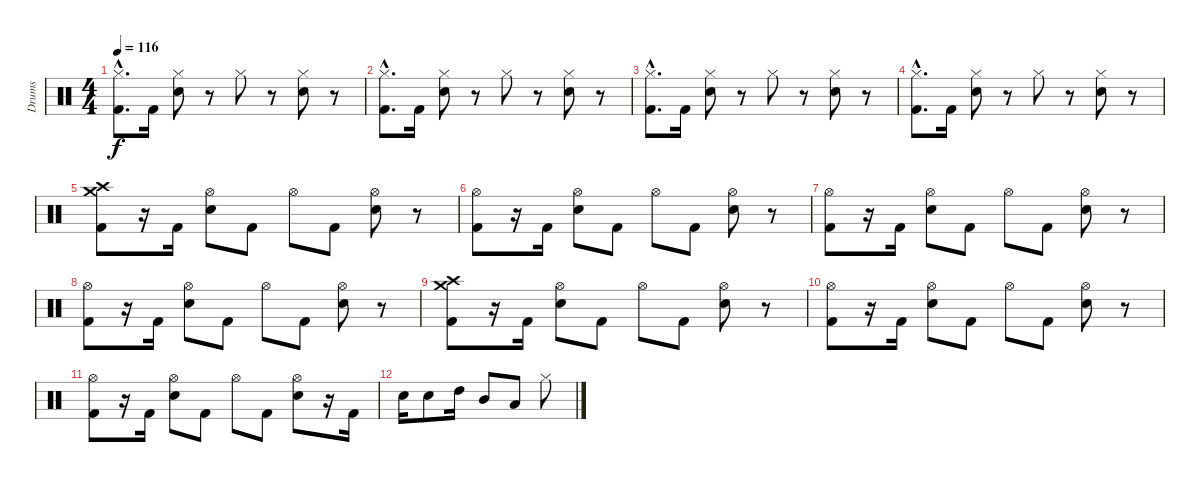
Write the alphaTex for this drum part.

\track ("Drums" "Drums") {instrument percussion}
\staff {score}
\articulation defaults
\ts (4 4)
\tempo 116
\clef neutral
\ks c
("Hi-Hat (closed)"{hac} "Kick (hit) 2"{hac}).8{d dy f} "Kick (hit) 2".16 ("Hi-Hat (closed)" "Electric Snare (hit)").8 r.8 "Hi-Hat (closed)".8 r.8 ("Hi-Hat (closed)" "Electric Snare (hit)").8 r.8 |
("Hi-Hat (closed)"{hac} "Kick (hit) 2"{hac}).8{d} "Kick (hit) 2".16 ("Hi-Hat (closed)" "Electric Snare (hit)").8 r.8 "Hi-Hat (closed)".8 r.8 ("Hi-Hat (closed)" "Electric Snare (hit)").8 r.8 |
("Hi-Hat (closed)"{hac} "Kick (hit) 2"{hac}).8{d} "Kick (hit) 2".16 ("Hi-Hat (closed)" "Electric Snare (hit)").8 r.8 "Hi-Hat (closed)".8 r.8 ("Hi-Hat (closed)" "Electric Snare (hit)").8 r.8 |
("Hi-Hat (closed)"{hac} "Kick (hit) 2"{hac}).8{d} "Kick (hit) 2".16 ("Hi-Hat (closed)" "Electric Snare (hit)").8 r.8 "Hi-Hat (closed)".8 r.8 ("Hi-Hat (closed)" "Electric Snare (hit)").8 r.8 |
("Crash medium (hit)" "Crash high (hit)" "Kick (hit) 2").8 r.16 "Kick (hit) 2".16 ("Hi-Hat (open)" "Electric Snare (hit)").8 "Kick (hit) 2".8 "Hi-Hat (open)".8 "Kick (hit) 2".8 ("Hi-Hat (open)" "Electric Snare (hit)").8 r.8 |
("Hi-Hat (open)" "Kick (hit) 2").8 r.16 "Kick (hit) 2".16 ("Hi-Hat (open)" "Electric Snare (hit)").8 "Kick (hit) 2".8 "Hi-Hat (open)".8 "Kick (hit) 2".8 ("Hi-Hat (open)" "Electric Snare (hit)").8 r.8 |
("Hi-Hat (open)" "Kick (hit) 2").8 r.16 "Kick (hit) 2".16 ("Hi-Hat (open)" "Electric Snare (hit)").8 "Kick (hit) 2".8 "Hi-Hat (open)".8 "Kick (hit) 2".8 ("Hi-Hat (open)" "Electric Snare (hit)").8 r.8 |
("Hi-Hat (open)" "Kick (hit) 2").8 r.16 "Kick (hit) 2".16 ("Hi-Hat (open)" "Electric Snare (hit)").8 "Kick (hit) 2".8 "Hi-Hat (open)".8 "Kick (hit) 2".8 ("Hi-Hat (open)" "Electric Snare (hit)").8 r.8 |
("Crash medium (hit)" "Crash high (hit)" "Kick (hit) 2").8 r.16 "Kick (hit) 2".16 ("Hi-Hat (open)" "Electric Snare (hit)").8 "Kick (hit) 2".8 "Hi-Hat (open)".8 "Kick (hit) 2".8 ("Hi-Hat (open)" "Electric Snare (hit)").8 r.8 |
("Hi-Hat (open)" "Kick (hit) 2").8 r.16 "Kick (hit) 2".16 ("Hi-Hat (open)" "Electric Snare (hit)").8 "Kick (hit) 2".8 "Hi-Hat (open)".8 "Kick (hit) 2".8 ("Hi-Hat (open)" "Electric Snare (hit)").8 r.8 |
("Hi-Hat (open)" "Kick (hit) 2").8 r.16 "Kick (hit) 2".16 ("Hi-Hat (open)" "Electric Snare (hit)").8 "Kick (hit) 2".8 "Hi-Hat (open)".8 "Kick (hit) 2".8 ("Hi-Hat (open)" "Electric Snare (hit)").8 r.16 "Kick (hit) 2".16 |
"Electric Snare (hit)".16 "Electric Snare (hit)".8 "High Tom (hit)".16 "Mid Tom (hit)".8 "Low Tom (hit)".8 "Hi-Hat (closed)".8
